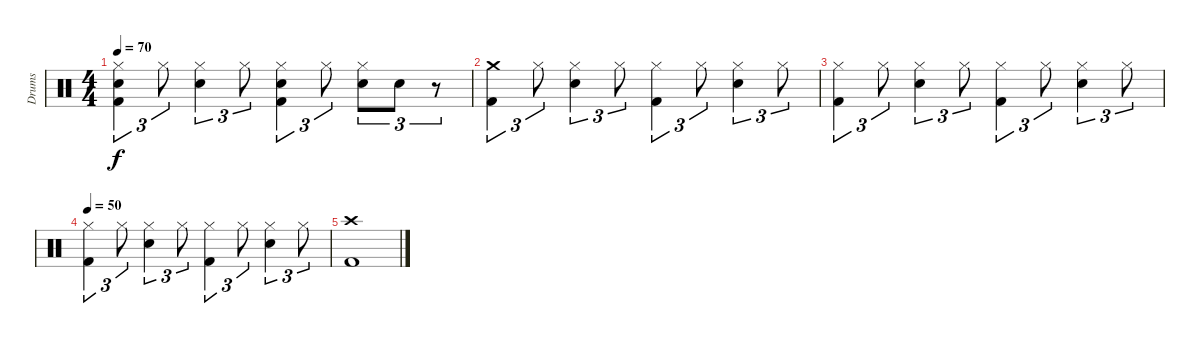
\track ("Drums" "Drums") {instrument percussion}
\staff {score}
\articulation defaults
\ts (4 4)
\tempo 70
\clef neutral
\ks c
("Hi-Hat (closed)" "Snare (hit) 2" "Kick (hit) 2").4{tu (3 2) dy f} "Hi-Hat (closed)".8{tu (3 2)} ("Hi-Hat (closed)" "Snare (hit) 2").4{tu (3 2)} "Hi-Hat (closed)".8{tu (3 2)} ("Hi-Hat (closed)" "Snare (hit) 2" "Kick (hit) 2").4{tu (3 2)} "Hi-Hat (closed)".8{tu (3 2)} ("Hi-Hat (closed)" "Snare (hit) 2").8{tu (3 2)} "Snare (hit) 2".8{tu (3 2)} r.8{tu (3 2)} |
("Crash medium (hit)" "Kick (hit) 2").4{tu (3 2)} "Hi-Hat (closed)".8{tu (3 2)} ("Hi-Hat (closed)" "Snare (hit) 2").4{tu (3 2)} "Hi-Hat (closed)".8{tu (3 2)} ("Hi-Hat (closed)" "Kick (hit) 2").4{tu (3 2)} "Hi-Hat (closed)".8{tu (3 2)} ("Hi-Hat (closed)" "Snare (hit) 2").4{tu (3 2)} "Hi-Hat (closed)".8{tu (3 2)} |
("Hi-Hat (closed)" "Kick (hit) 2").4{tu (3 2)} "Hi-Hat (closed)".8{tu (3 2)} ("Hi-Hat (closed)" "Snare (hit) 2").4{tu (3 2)} "Hi-Hat (closed)".8{tu (3 2)} ("Hi-Hat (closed)" "Kick (hit) 2").4{tu (3 2)} "Hi-Hat (closed)".8{tu (3 2)} ("Hi-Hat (closed)" "Snare (hit) 2").4{tu (3 2)} "Hi-Hat (closed)".8{tu (3 2)} |
\tempo 50
("Hi-Hat (closed)" "Kick (hit) 2").4{tu (3 2)} "Hi-Hat (closed)".8{tu (3 2)} ("Hi-Hat (closed)" "Snare (hit) 2").4{tu (3 2)} "Hi-Hat (closed)".8{tu (3 2)} ("Hi-Hat (closed)" "Kick (hit) 2").4{tu (3 2)} "Hi-Hat (closed)".8{tu (3 2)} ("Hi-Hat (closed)" "Snare (hit) 2").4{tu (3 2)} "Hi-Hat (closed)".8{tu (3 2)} |
("Crash high (hit)" "Kick (hit) 2").1
